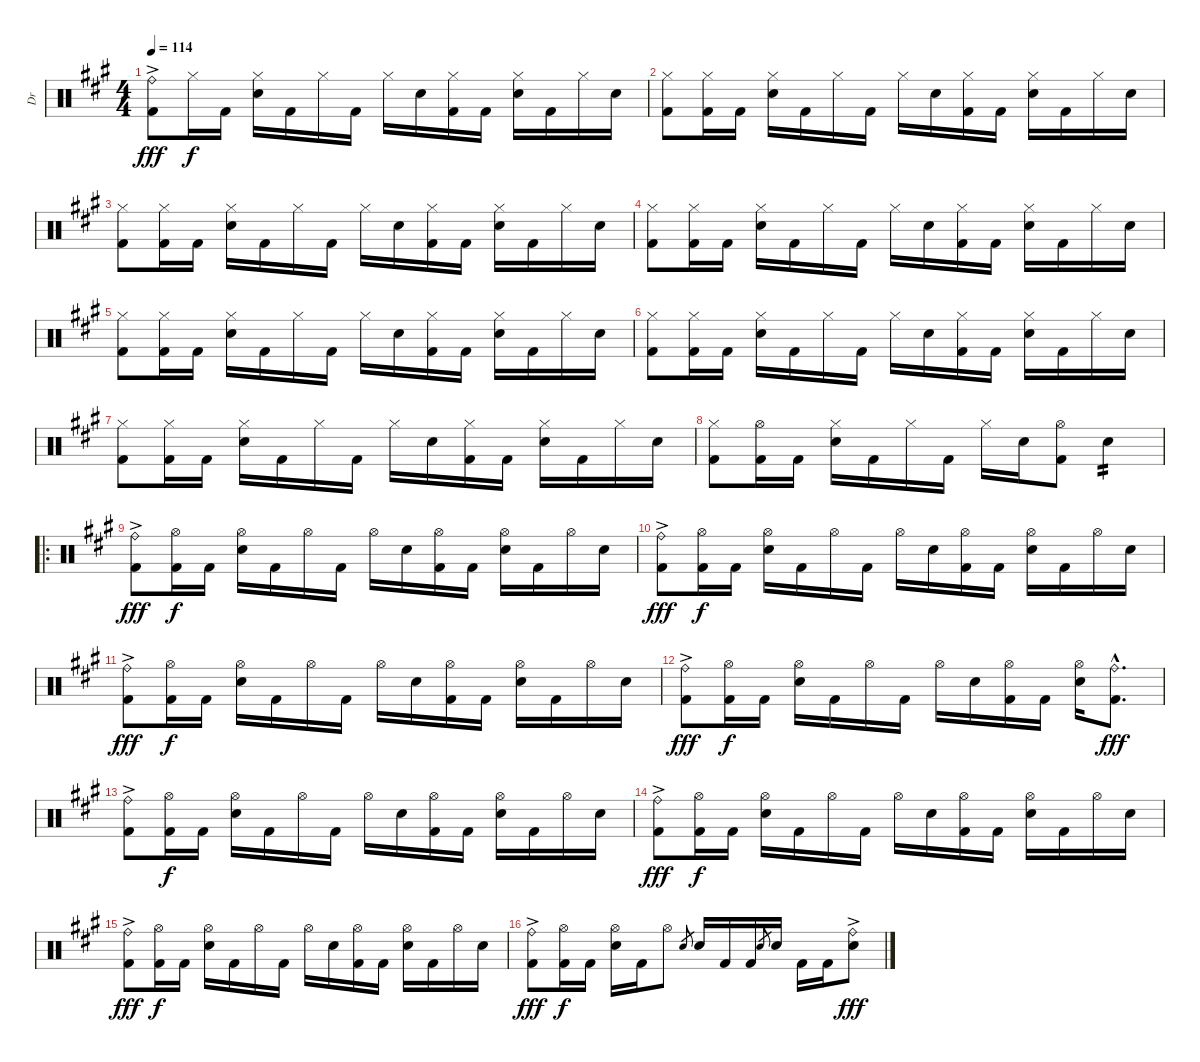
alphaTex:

\track ("Dr" "Dr") {instrument percussion}
\staff {score}
\articulation defaults
\ts (4 4)
\tempo 114
\clef neutral
\ks a
("Ride (bell)"{ac} "Kick (hit) 2"{ac}).8{dy fff} "Hi-Hat (closed)".16{dy f} "Kick (hit) 2".16 ("Hi-Hat (closed)" "Electric Snare (hit)").16 "Kick (hit) 2".16 "Hi-Hat (closed)".16 "Kick (hit) 2".16 "Hi-Hat (closed)".16 "Electric Snare (hit)".16 ("Hi-Hat (closed)" "Kick (hit) 2").16 "Kick (hit) 2".16 ("Hi-Hat (closed)" "Electric Snare (hit)").16 "Kick (hit) 2".16 "Hi-Hat (closed)".16 "Electric Snare (hit)".16 |
("Hi-Hat (closed)" "Kick (hit) 2").8 ("Hi-Hat (closed)" "Kick (hit) 2").16 "Kick (hit) 2".16 ("Hi-Hat (closed)" "Electric Snare (hit)").16 "Kick (hit) 2".16 "Hi-Hat (closed)".16 "Kick (hit) 2".16 "Hi-Hat (closed)".16 "Electric Snare (hit)".16 ("Hi-Hat (closed)" "Kick (hit) 2").16 "Kick (hit) 2".16 ("Hi-Hat (closed)" "Electric Snare (hit)").16 "Kick (hit) 2".16 "Hi-Hat (closed)".16 "Electric Snare (hit)".16 |
("Hi-Hat (closed)" "Kick (hit) 2").8 ("Hi-Hat (closed)" "Kick (hit) 2").16 "Kick (hit) 2".16 ("Hi-Hat (closed)" "Electric Snare (hit)").16 "Kick (hit) 2".16 "Hi-Hat (closed)".16 "Kick (hit) 2".16 "Hi-Hat (closed)".16 "Electric Snare (hit)".16 ("Hi-Hat (closed)" "Kick (hit) 2").16 "Kick (hit) 2".16 ("Hi-Hat (closed)" "Electric Snare (hit)").16 "Kick (hit) 2".16 "Hi-Hat (closed)".16 "Electric Snare (hit)".16 |
("Hi-Hat (closed)" "Kick (hit) 2").8 ("Hi-Hat (closed)" "Kick (hit) 2").16 "Kick (hit) 2".16 ("Hi-Hat (closed)" "Electric Snare (hit)").16 "Kick (hit) 2".16 "Hi-Hat (closed)".16 "Kick (hit) 2".16 "Hi-Hat (closed)".16 "Electric Snare (hit)".16 ("Hi-Hat (closed)" "Kick (hit) 2").16 "Kick (hit) 2".16 ("Hi-Hat (closed)" "Electric Snare (hit)").16 "Kick (hit) 2".16 "Hi-Hat (closed)".16 "Electric Snare (hit)".16 |
("Hi-Hat (closed)" "Kick (hit) 2").8 ("Hi-Hat (closed)" "Kick (hit) 2").16 "Kick (hit) 2".16 ("Hi-Hat (closed)" "Electric Snare (hit)").16 "Kick (hit) 2".16 "Hi-Hat (closed)".16 "Kick (hit) 2".16 "Hi-Hat (closed)".16 "Electric Snare (hit)".16 ("Hi-Hat (closed)" "Kick (hit) 2").16 "Kick (hit) 2".16 ("Hi-Hat (closed)" "Electric Snare (hit)").16 "Kick (hit) 2".16 "Hi-Hat (closed)".16 "Electric Snare (hit)".16 |
("Hi-Hat (closed)" "Kick (hit) 2").8 ("Hi-Hat (closed)" "Kick (hit) 2").16 "Kick (hit) 2".16 ("Hi-Hat (closed)" "Electric Snare (hit)").16 "Kick (hit) 2".16 "Hi-Hat (closed)".16 "Kick (hit) 2".16 "Hi-Hat (closed)".16 "Electric Snare (hit)".16 ("Hi-Hat (closed)" "Kick (hit) 2").16 "Kick (hit) 2".16 ("Hi-Hat (closed)" "Electric Snare (hit)").16 "Kick (hit) 2".16 "Hi-Hat (closed)".16 "Electric Snare (hit)".16 |
("Hi-Hat (closed)" "Kick (hit) 2").8 ("Hi-Hat (closed)" "Kick (hit) 2").16 "Kick (hit) 2".16 ("Hi-Hat (closed)" "Electric Snare (hit)").16 "Kick (hit) 2".16 "Hi-Hat (closed)".16 "Kick (hit) 2".16 "Hi-Hat (closed)".16 "Electric Snare (hit)".16 ("Hi-Hat (closed)" "Kick (hit) 2").16 "Kick (hit) 2".16 ("Hi-Hat (closed)" "Electric Snare (hit)").16 "Kick (hit) 2".16 "Hi-Hat (closed)".16 "Electric Snare (hit)".16 |
("Hi-Hat (closed)" "Kick (hit) 2").8 ("Hi-Hat (open)" "Kick (hit) 2").16 "Kick (hit) 2".16 ("Hi-Hat (closed)" "Electric Snare (hit)").16 "Kick (hit) 2".16 "Hi-Hat (closed)".16 "Kick (hit) 2".16 "Hi-Hat (closed)".16 "Electric Snare (hit)".16 ("Hi-Hat (open)" "Kick (hit) 2").8 "Electric Snare (hit)".4{tp 2} |
\ro
("Ride (bell)"{ac} "Kick (hit) 2"{ac}).8{dy fff} ("Hi-Hat (open)" "Kick (hit) 2").16{dy f} "Kick (hit) 2".16 ("Hi-Hat (open)" "Electric Snare (hit)").16 "Kick (hit) 2".16 "Hi-Hat (open)".16 "Kick (hit) 2".16 "Hi-Hat (open)".16 "Electric Snare (hit)".16 ("Hi-Hat (open)" "Kick (hit) 2").16 "Kick (hit) 2".16 ("Hi-Hat (open)" "Electric Snare (hit)").16 "Kick (hit) 2".16 "Hi-Hat (open)".16 "Electric Snare (hit)".16 |
("Ride (bell)"{ac} "Kick (hit) 2"{ac}).8{dy fff} ("Hi-Hat (open)" "Kick (hit) 2").16{dy f} "Kick (hit) 2".16 ("Hi-Hat (open)" "Electric Snare (hit)").16 "Kick (hit) 2".16 "Hi-Hat (open)".16 "Kick (hit) 2".16 "Hi-Hat (open)".16 "Electric Snare (hit)".16 ("Hi-Hat (open)" "Kick (hit) 2").16 "Kick (hit) 2".16 ("Hi-Hat (open)" "Electric Snare (hit)").16 "Kick (hit) 2".16 "Hi-Hat (open)".16 "Electric Snare (hit)".16 |
("Ride (bell)"{ac} "Kick (hit) 2"{ac}).8{dy fff} ("Hi-Hat (open)" "Kick (hit) 2").16{dy f} "Kick (hit) 2".16 ("Hi-Hat (open)" "Electric Snare (hit)").16 "Kick (hit) 2".16 "Hi-Hat (open)".16 "Kick (hit) 2".16 "Hi-Hat (open)".16 "Electric Snare (hit)".16 ("Hi-Hat (open)" "Kick (hit) 2").16 "Kick (hit) 2".16 ("Hi-Hat (open)" "Electric Snare (hit)").16 "Kick (hit) 2".16 "Hi-Hat (open)".16 "Electric Snare (hit)".16 |
("Ride (bell)"{ac} "Kick (hit) 2"{ac}).8{dy fff} ("Hi-Hat (open)" "Kick (hit) 2").16{dy f} "Kick (hit) 2".16 ("Hi-Hat (open)" "Electric Snare (hit)").16 "Kick (hit) 2".16 "Hi-Hat (open)".16 "Kick (hit) 2".16 "Hi-Hat (open)".16 "Electric Snare (hit)".16 ("Hi-Hat (open)" "Kick (hit) 2").16 "Kick (hit) 2".16 ("Hi-Hat (open)" "Electric Snare (hit)").16 ("Ride (bell)"{hac} "Kick (hit) 2"{hac}).8{d dy fff} |
("Ride (bell)"{ac} "Kick (hit) 2"{ac}).8 ("Hi-Hat (open)" "Kick (hit) 2").16{dy f} "Kick (hit) 2".16 ("Hi-Hat (open)" "Electric Snare (hit)").16 "Kick (hit) 2".16 "Hi-Hat (open)".16 "Kick (hit) 2".16 "Hi-Hat (open)".16 "Electric Snare (hit)".16 ("Hi-Hat (open)" "Kick (hit) 2").16 "Kick (hit) 2".16 ("Hi-Hat (open)" "Electric Snare (hit)").16 "Kick (hit) 2".16 "Hi-Hat (open)".16 "Electric Snare (hit)".16 |
("Ride (bell)"{ac} "Kick (hit) 2"{ac}).8{dy fff} ("Hi-Hat (open)" "Kick (hit) 2").16{dy f} "Kick (hit) 2".16 ("Hi-Hat (open)" "Electric Snare (hit)").16 "Kick (hit) 2".16 "Hi-Hat (open)".16 "Kick (hit) 2".16 "Hi-Hat (open)".16 "Electric Snare (hit)".16 ("Hi-Hat (open)" "Kick (hit) 2").16 "Kick (hit) 2".16 ("Hi-Hat (open)" "Electric Snare (hit)").16 "Kick (hit) 2".16 "Hi-Hat (open)".16 "Electric Snare (hit)".16 |
("Ride (bell)"{ac} "Kick (hit) 2"{ac}).8{dy fff} ("Hi-Hat (open)" "Kick (hit) 2").16{dy f} "Kick (hit) 2".16 ("Hi-Hat (open)" "Electric Snare (hit)").16 "Kick (hit) 2".16 "Hi-Hat (open)".16 "Kick (hit) 2".16 "Hi-Hat (open)".16 "Electric Snare (hit)".16 ("Hi-Hat (open)" "Kick (hit) 2").16 "Kick (hit) 2".16 ("Hi-Hat (open)" "Electric Snare (hit)").16 "Kick (hit) 2".16 "Hi-Hat (open)".16 "Electric Snare (hit)".16 |
("Ride (bell)"{ac} "Kick (hit) 2"{ac}).8{dy fff} ("Hi-Hat (open)" "Kick (hit) 2").16{dy f} "Kick (hit) 2".16 ("Hi-Hat (open)" "Electric Snare (hit)").16 "Kick (hit) 2".16 "Hi-Hat (open)".8 "Electric Snare (hit)".8{gr} "Electric Snare (hit)".16 "Kick (hit) 2".16 "Kick (hit) 2".16 "Electric Snare (hit)".8{gr} "Electric Snare (hit)".16 "Kick (hit) 2".16 "Kick (hit) 2".16 ("Ride (bell)"{ac} "Electric Snare (hit)"{ac}).8{dy fff}
